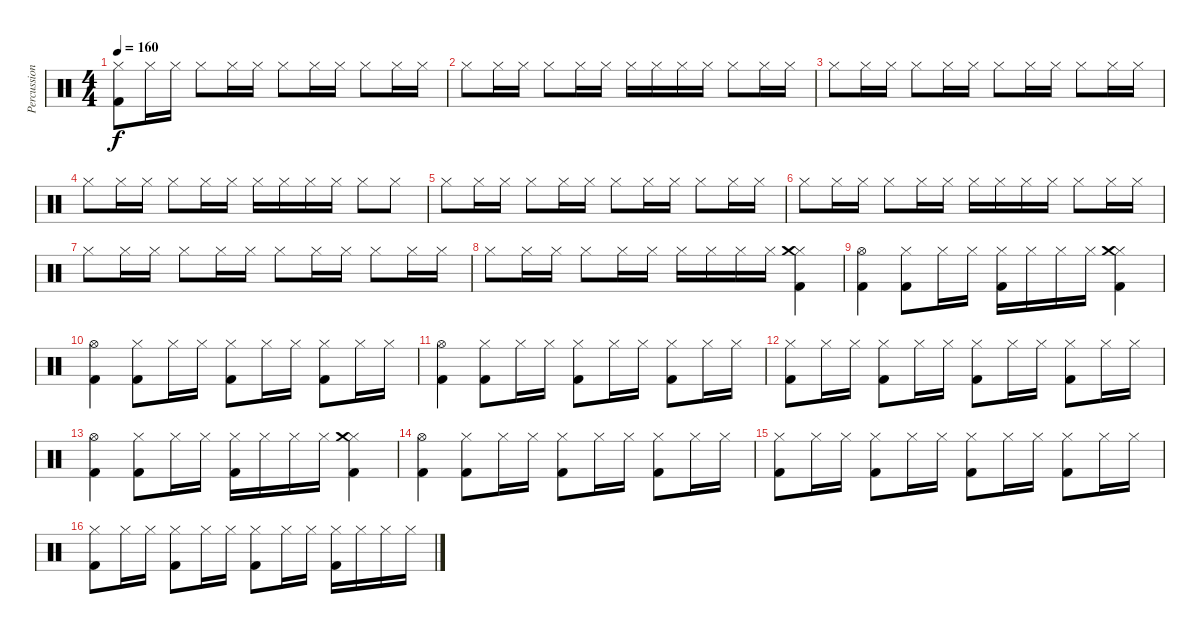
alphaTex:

\track ("Percussion" "Percussion") {instrument percussion}
\staff {score}
\articulation defaults
\ts (4 4)
\tempo 160
\clef neutral
\ks c
("Hi-Hat (closed)" "Kick (hit) 2").8{dy f} "Hi-Hat (closed)".16 "Hi-Hat (closed)".16 "Hi-Hat (closed)".8 "Hi-Hat (closed)".16 "Hi-Hat (closed)".16 "Hi-Hat (closed)".8 "Hi-Hat (closed)".16 "Hi-Hat (closed)".16 "Hi-Hat (closed)".8 "Hi-Hat (closed)".16 "Hi-Hat (closed)".16 |
"Hi-Hat (closed)".8 "Hi-Hat (closed)".16 "Hi-Hat (closed)".16 "Hi-Hat (closed)".8 "Hi-Hat (closed)".16 "Hi-Hat (closed)".16 "Hi-Hat (closed)".16 "Hi-Hat (closed)".16 "Hi-Hat (closed)".16 "Hi-Hat (closed)".16 "Hi-Hat (closed)".8 "Hi-Hat (closed)".16 "Hi-Hat (closed)".16 |
"Hi-Hat (closed)".8 "Hi-Hat (closed)".16 "Hi-Hat (closed)".16 "Hi-Hat (closed)".8 "Hi-Hat (closed)".16 "Hi-Hat (closed)".16 "Hi-Hat (closed)".8 "Hi-Hat (closed)".16 "Hi-Hat (closed)".16 "Hi-Hat (closed)".8 "Hi-Hat (closed)".16 "Hi-Hat (closed)".16 |
"Hi-Hat (closed)".8 "Hi-Hat (closed)".16 "Hi-Hat (closed)".16 "Hi-Hat (closed)".8 "Hi-Hat (closed)".16 "Hi-Hat (closed)".16 "Hi-Hat (closed)".16 "Hi-Hat (closed)".16 "Hi-Hat (closed)".16 "Hi-Hat (closed)".16 "Hi-Hat (closed)".8 "Hi-Hat (closed)".8 |
"Hi-Hat (closed)".8 "Hi-Hat (closed)".16 "Hi-Hat (closed)".16 "Hi-Hat (closed)".8 "Hi-Hat (closed)".16 "Hi-Hat (closed)".16 "Hi-Hat (closed)".8 "Hi-Hat (closed)".16 "Hi-Hat (closed)".16 "Hi-Hat (closed)".8 "Hi-Hat (closed)".16 "Hi-Hat (closed)".16 |
"Hi-Hat (closed)".8 "Hi-Hat (closed)".16 "Hi-Hat (closed)".16 "Hi-Hat (closed)".8 "Hi-Hat (closed)".16 "Hi-Hat (closed)".16 "Hi-Hat (closed)".16 "Hi-Hat (closed)".16 "Hi-Hat (closed)".16 "Hi-Hat (closed)".16 "Hi-Hat (closed)".8 "Hi-Hat (closed)".16 "Hi-Hat (closed)".16 |
"Hi-Hat (closed)".8 "Hi-Hat (closed)".16 "Hi-Hat (closed)".16 "Hi-Hat (closed)".8 "Hi-Hat (closed)".16 "Hi-Hat (closed)".16 "Hi-Hat (closed)".8 "Hi-Hat (closed)".16 "Hi-Hat (closed)".16 "Hi-Hat (closed)".8 "Hi-Hat (closed)".16 "Hi-Hat (closed)".16 |
"Hi-Hat (closed)".8 "Hi-Hat (closed)".16 "Hi-Hat (closed)".16 "Hi-Hat (closed)".8 "Hi-Hat (closed)".16 "Hi-Hat (closed)".16 "Hi-Hat (closed)".16 "Hi-Hat (closed)".16 "Hi-Hat (closed)".16 "Hi-Hat (closed)".16 ("Hi-Hat (closed)" "Crash medium (hit)" "Kick (hit) 2").4 |
("Hi-Hat (open)" "Kick (hit) 2").4 ("Hi-Hat (closed)" "Kick (hit) 2").8 "Hi-Hat (closed)".16 "Hi-Hat (closed)".16 ("Hi-Hat (closed)" "Kick (hit) 2").16 "Hi-Hat (closed)".16 "Hi-Hat (closed)".16 "Hi-Hat (closed)".16 ("Hi-Hat (closed)" "Crash medium (hit)" "Kick (hit) 2").4 |
("Hi-Hat (open)" "Kick (hit) 2").4 ("Hi-Hat (closed)" "Kick (hit) 2").8 "Hi-Hat (closed)".16 "Hi-Hat (closed)".16 ("Hi-Hat (closed)" "Kick (hit) 2").8 "Hi-Hat (closed)".16 "Hi-Hat (closed)".16 ("Hi-Hat (closed)" "Kick (hit) 2").8 "Hi-Hat (closed)".16 "Hi-Hat (closed)".16 |
("Hi-Hat (open)" "Kick (hit) 2").4 ("Hi-Hat (closed)" "Kick (hit) 2").8 "Hi-Hat (closed)".16 "Hi-Hat (closed)".16 ("Hi-Hat (closed)" "Kick (hit) 2").8 "Hi-Hat (closed)".16 "Hi-Hat (closed)".16 ("Hi-Hat (closed)" "Kick (hit) 2").8 "Hi-Hat (closed)".16 "Hi-Hat (closed)".16 |
("Hi-Hat (closed)" "Kick (hit) 2").8 "Hi-Hat (closed)".16 "Hi-Hat (closed)".16 ("Hi-Hat (closed)" "Kick (hit) 2").8 "Hi-Hat (closed)".16 "Hi-Hat (closed)".16 ("Hi-Hat (closed)" "Kick (hit) 2").8 "Hi-Hat (closed)".16 "Hi-Hat (closed)".16 ("Hi-Hat (closed)" "Kick (hit) 2").8 "Hi-Hat (closed)".16 "Hi-Hat (closed)".16 |
("Hi-Hat (open)" "Kick (hit) 2").4 ("Hi-Hat (closed)" "Kick (hit) 2").8 "Hi-Hat (closed)".16 "Hi-Hat (closed)".16 ("Hi-Hat (closed)" "Kick (hit) 2").16 "Hi-Hat (closed)".16 "Hi-Hat (closed)".16 "Hi-Hat (closed)".16 ("Hi-Hat (closed)" "Crash medium (hit)" "Kick (hit) 2").4 |
("Hi-Hat (open)" "Kick (hit) 2").4 ("Hi-Hat (closed)" "Kick (hit) 2").8 "Hi-Hat (closed)".16 "Hi-Hat (closed)".16 ("Hi-Hat (closed)" "Kick (hit) 2").8 "Hi-Hat (closed)".16 "Hi-Hat (closed)".16 ("Hi-Hat (closed)" "Kick (hit) 2").8 "Hi-Hat (closed)".16 "Hi-Hat (closed)".16 |
("Hi-Hat (closed)" "Kick (hit) 2").8 "Hi-Hat (closed)".16 "Hi-Hat (closed)".16 ("Hi-Hat (closed)" "Kick (hit) 2").8 "Hi-Hat (closed)".16 "Hi-Hat (closed)".16 ("Hi-Hat (closed)" "Kick (hit) 2").8 "Hi-Hat (closed)".16 "Hi-Hat (closed)".16 ("Hi-Hat (closed)" "Kick (hit) 2").8 "Hi-Hat (closed)".16 "Hi-Hat (closed)".16 |
("Hi-Hat (closed)" "Kick (hit) 2").8 "Hi-Hat (closed)".16 "Hi-Hat (closed)".16 ("Hi-Hat (closed)" "Kick (hit) 2").8 "Hi-Hat (closed)".16 "Hi-Hat (closed)".16 ("Hi-Hat (closed)" "Kick (hit) 2").8 "Hi-Hat (closed)".16 "Hi-Hat (closed)".16 ("Hi-Hat (closed)" "Kick (hit) 2").16 "Hi-Hat (closed)".16 "Hi-Hat (closed)".16 "Hi-Hat (closed)".16
